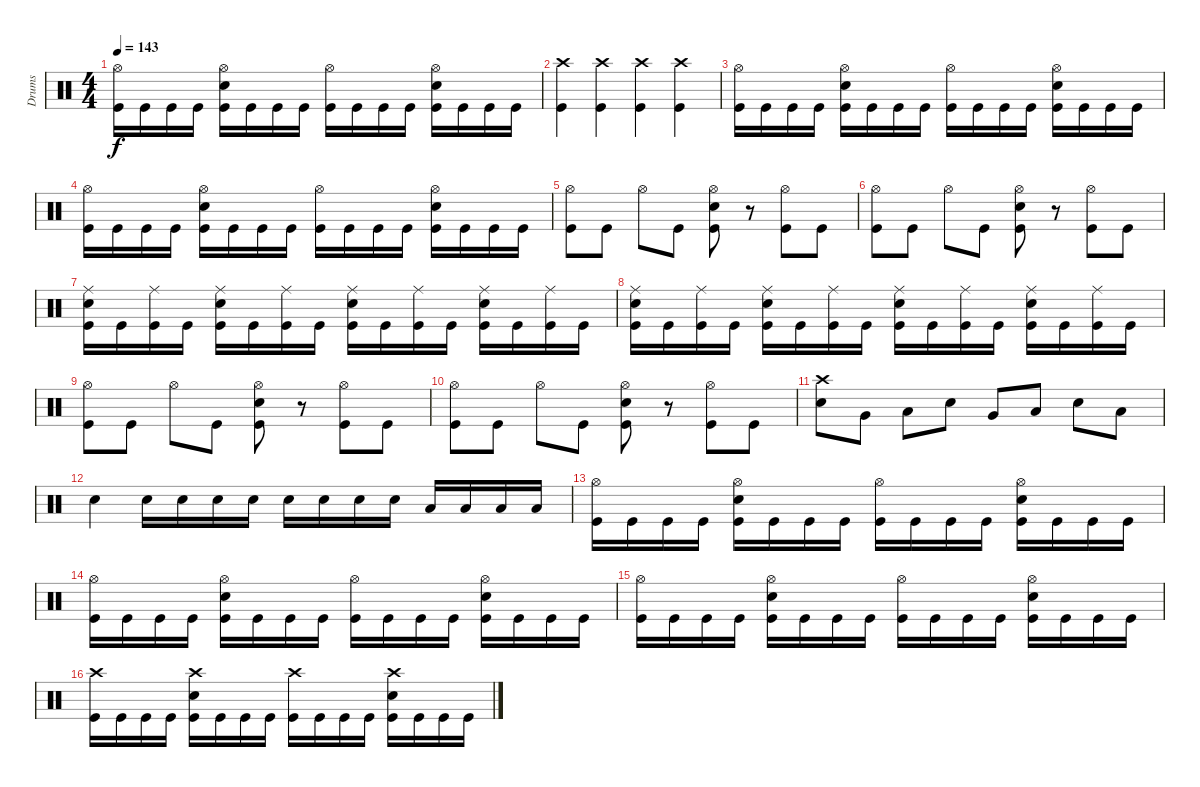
\track ("Drums" "Drums") {instrument percussion}
\staff {score}
\articulation defaults
\ts (4 4)
\tempo 143
\clef neutral
\ks c
("Hi-Hat (open)" "Kick (hit)").16{dy f} "Kick (hit)".16 "Kick (hit)".16 "Kick (hit)".16 ("Hi-Hat (open)" "Snare (hit) 2" "Kick (hit)").16 "Kick (hit)".16 "Kick (hit)".16 "Kick (hit)".16 ("Hi-Hat (open)" "Kick (hit)").16 "Kick (hit)".16 "Kick (hit)".16 "Kick (hit)".16 ("Hi-Hat (open)" "Snare (hit) 2" "Kick (hit)").16 "Kick (hit)".16 "Kick (hit)".16 "Kick (hit)".16 |
("Crash high (hit)" "Kick (hit)").4 ("Crash high (hit)" "Kick (hit)").4 ("Crash high (hit)" "Kick (hit)").4 ("Crash high (hit)" "Kick (hit)").4 |
("Hi-Hat (open)" "Kick (hit)").16 "Kick (hit)".16 "Kick (hit)".16 "Kick (hit)".16 ("Hi-Hat (open)" "Snare (hit) 2" "Kick (hit)").16 "Kick (hit)".16 "Kick (hit)".16 "Kick (hit)".16 ("Hi-Hat (open)" "Kick (hit)").16 "Kick (hit)".16 "Kick (hit)".16 "Kick (hit)".16 ("Hi-Hat (open)" "Snare (hit) 2" "Kick (hit)").16 "Kick (hit)".16 "Kick (hit)".16 "Kick (hit)".16 |
("Hi-Hat (open)" "Kick (hit)").16 "Kick (hit)".16 "Kick (hit)".16 "Kick (hit)".16 ("Hi-Hat (open)" "Snare (hit) 2" "Kick (hit)").16 "Kick (hit)".16 "Kick (hit)".16 "Kick (hit)".16 ("Hi-Hat (open)" "Kick (hit)").16 "Kick (hit)".16 "Kick (hit)".16 "Kick (hit)".16 ("Hi-Hat (open)" "Snare (hit) 2" "Kick (hit)").16 "Kick (hit)".16 "Kick (hit)".16 "Kick (hit)".16 |
("Hi-Hat (open)" "Kick (hit)").8 "Kick (hit)".8 "Hi-Hat (open)".8 "Kick (hit)".8 ("Hi-Hat (open)" "Snare (hit) 2" "Kick (hit)").8 r.8 ("Hi-Hat (open)" "Kick (hit)").8 "Kick (hit)".8 |
("Hi-Hat (open)" "Kick (hit)").8 "Kick (hit)".8 "Hi-Hat (open)".8 "Kick (hit)".8 ("Hi-Hat (open)" "Snare (hit) 2" "Kick (hit)").8 r.8 ("Hi-Hat (open)" "Kick (hit)").8 "Kick (hit)".8 |
("Ride (middle)" "Snare (hit) 2" "Kick (hit)").16 "Kick (hit)".16 ("Ride (middle)" "Kick (hit)").16 "Kick (hit)".16 ("Ride (middle)" "Snare (hit) 2" "Kick (hit)").16 "Kick (hit)".16 ("Ride (middle)" "Kick (hit)").16 "Kick (hit)".16 ("Ride (middle)" "Snare (hit) 2" "Kick (hit)").16 "Kick (hit)".16 ("Ride (middle)" "Kick (hit)").16 "Kick (hit)".16 ("Ride (middle)" "Snare (hit) 2" "Kick (hit)").16 "Kick (hit)".16 ("Ride (middle)" "Kick (hit)").16 "Kick (hit)".16 |
("Ride (middle)" "Snare (hit) 2" "Kick (hit)").16 "Kick (hit)".16 ("Ride (middle)" "Kick (hit)").16 "Kick (hit)".16 ("Ride (middle)" "Snare (hit) 2" "Kick (hit)").16 "Kick (hit)".16 ("Ride (middle)" "Kick (hit)").16 "Kick (hit)".16 ("Ride (middle)" "Snare (hit) 2" "Kick (hit)").16 "Kick (hit)".16 ("Ride (middle)" "Kick (hit)").16 "Kick (hit)".16 ("Ride (middle)" "Snare (hit) 2" "Kick (hit)").16 "Kick (hit)".16 ("Ride (middle)" "Kick (hit)").16 "Kick (hit)".16 |
("Hi-Hat (open)" "Kick (hit)").8 "Kick (hit)".8 "Hi-Hat (open)".8 "Kick (hit)".8 ("Hi-Hat (open)" "Snare (hit) 2" "Kick (hit)").8 r.8 ("Hi-Hat (open)" "Kick (hit)").8 "Kick (hit)".8 |
("Hi-Hat (open)" "Kick (hit)").8 "Kick (hit)".8 "Hi-Hat (open)".8 "Kick (hit)".8 ("Hi-Hat (open)" "Snare (hit) 2" "Kick (hit)").8 r.8 ("Hi-Hat (open)" "Kick (hit)").8 "Kick (hit)".8 |
("Crash high (hit)" "Snare (hit) 2").8 "Very Low Tom (hit)".8 "Low Tom (hit)".8 "Snare (hit) 2".8 "Very Low Tom (hit)".8 "Low Tom (hit)".8 "Snare (hit) 2".8 "Low Tom (hit)".8 |
"Snare (hit) 2".4 "Snare (hit) 2".16 "Snare (hit) 2".16 "Snare (hit) 2".16 "Snare (hit) 2".16 "Snare (hit) 2".16 "Snare (hit) 2".16 "Snare (hit) 2".16 "Snare (hit) 2".16 "Low Tom (hit)".16 "Low Tom (hit)".16 "Low Tom (hit)".16 "Low Tom (hit)".16 |
("Hi-Hat (open)" "Kick (hit)").16 "Kick (hit)".16 "Kick (hit)".16 "Kick (hit)".16 ("Hi-Hat (open)" "Snare (hit) 2" "Kick (hit)").16 "Kick (hit)".16 "Kick (hit)".16 "Kick (hit)".16 ("Hi-Hat (open)" "Kick (hit)").16 "Kick (hit)".16 "Kick (hit)".16 "Kick (hit)".16 ("Hi-Hat (open)" "Snare (hit) 2" "Kick (hit)").16 "Kick (hit)".16 "Kick (hit)".16 "Kick (hit)".16 |
("Hi-Hat (open)" "Kick (hit)").16 "Kick (hit)".16 "Kick (hit)".16 "Kick (hit)".16 ("Hi-Hat (open)" "Snare (hit) 2" "Kick (hit)").16 "Kick (hit)".16 "Kick (hit)".16 "Kick (hit)".16 ("Hi-Hat (open)" "Kick (hit)").16 "Kick (hit)".16 "Kick (hit)".16 "Kick (hit)".16 ("Hi-Hat (open)" "Snare (hit) 2" "Kick (hit)").16 "Kick (hit)".16 "Kick (hit)".16 "Kick (hit)".16 |
("Hi-Hat (open)" "Kick (hit)").16 "Kick (hit)".16 "Kick (hit)".16 "Kick (hit)".16 ("Hi-Hat (open)" "Snare (hit) 2" "Kick (hit)").16 "Kick (hit)".16 "Kick (hit)".16 "Kick (hit)".16 ("Hi-Hat (open)" "Kick (hit)").16 "Kick (hit)".16 "Kick (hit)".16 "Kick (hit)".16 ("Hi-Hat (open)" "Snare (hit) 2" "Kick (hit)").16 "Kick (hit)".16 "Kick (hit)".16 "Kick (hit)".16 |
("Crash high (hit)" "Kick (hit)").16 "Kick (hit)".16 "Kick (hit)".16 "Kick (hit)".16 ("Crash high (hit)" "Snare (hit) 2" "Kick (hit)").16 "Kick (hit)".16 "Kick (hit)".16 "Kick (hit)".16 ("Crash high (hit)" "Kick (hit)").16 "Kick (hit)".16 "Kick (hit)".16 "Kick (hit)".16 ("Crash high (hit)" "Snare (hit) 2" "Kick (hit)").16 "Kick (hit)".16 "Kick (hit)".16 "Kick (hit)".16
